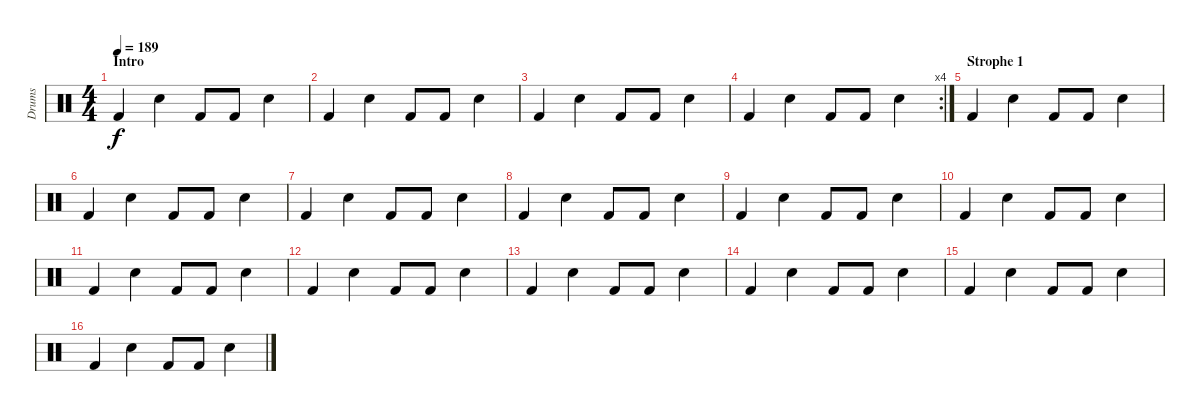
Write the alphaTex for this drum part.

\track ("Drums" "Drums") {instrument percussion}
\staff {score}
\articulation defaults
\ts (4 4)
\section ("" "Intro")
\tempo 189
\clef neutral
\ks c "Kick (hit) 2".4{dy f} "Electric Snare (hit)".4 "Kick (hit) 2".8 "Kick (hit) 2".8 "Electric Snare (hit)".4
|
"Kick (hit) 2".4 "Electric Snare (hit)".4 "Kick (hit) 2".8 "Kick (hit) 2".8 "Electric Snare (hit)".4 |
"Kick (hit) 2".4 "Electric Snare (hit)".4 "Kick (hit) 2".8 "Kick (hit) 2".8 "Electric Snare (hit)".4 |
\rc 4 "Kick (hit) 2".4 "Electric Snare (hit)".4 "Kick (hit) 2".8 "Kick (hit) 2".8 "Electric Snare (hit)".4
|
\section ("" "Strophe 1")
"Kick (hit) 2".4 "Electric Snare (hit)".4 "Kick (hit) 2".8 "Kick (hit) 2".8 "Electric Snare (hit)".4 |
"Kick (hit) 2".4 "Electric Snare (hit)".4 "Kick (hit) 2".8 "Kick (hit) 2".8 "Electric Snare (hit)".4 |
"Kick (hit) 2".4 "Electric Snare (hit)".4 "Kick (hit) 2".8 "Kick (hit) 2".8 "Electric Snare (hit)".4 |
"Kick (hit) 2".4 "Electric Snare (hit)".4 "Kick (hit) 2".8 "Kick (hit) 2".8 "Electric Snare (hit)".4 |
"Kick (hit) 2".4 "Electric Snare (hit)".4 "Kick (hit) 2".8 "Kick (hit) 2".8 "Electric Snare (hit)".4 |
"Kick (hit) 2".4 "Electric Snare (hit)".4 "Kick (hit) 2".8 "Kick (hit) 2".8 "Electric Snare (hit)".4 |
"Kick (hit) 2".4 "Electric Snare (hit)".4 "Kick (hit) 2".8 "Kick (hit) 2".8 "Electric Snare (hit)".4 |
"Kick (hit) 2".4 "Electric Snare (hit)".4 "Kick (hit) 2".8 "Kick (hit) 2".8 "Electric Snare (hit)".4 |
"Kick (hit) 2".4 "Electric Snare (hit)".4 "Kick (hit) 2".8 "Kick (hit) 2".8 "Electric Snare (hit)".4 |
"Kick (hit) 2".4 "Electric Snare (hit)".4 "Kick (hit) 2".8 "Kick (hit) 2".8 "Electric Snare (hit)".4 |
"Kick (hit) 2".4 "Electric Snare (hit)".4 "Kick (hit) 2".8 "Kick (hit) 2".8 "Electric Snare (hit)".4 |
"Kick (hit) 2".4 "Electric Snare (hit)".4 "Kick (hit) 2".8 "Kick (hit) 2".8 "Electric Snare (hit)".4
